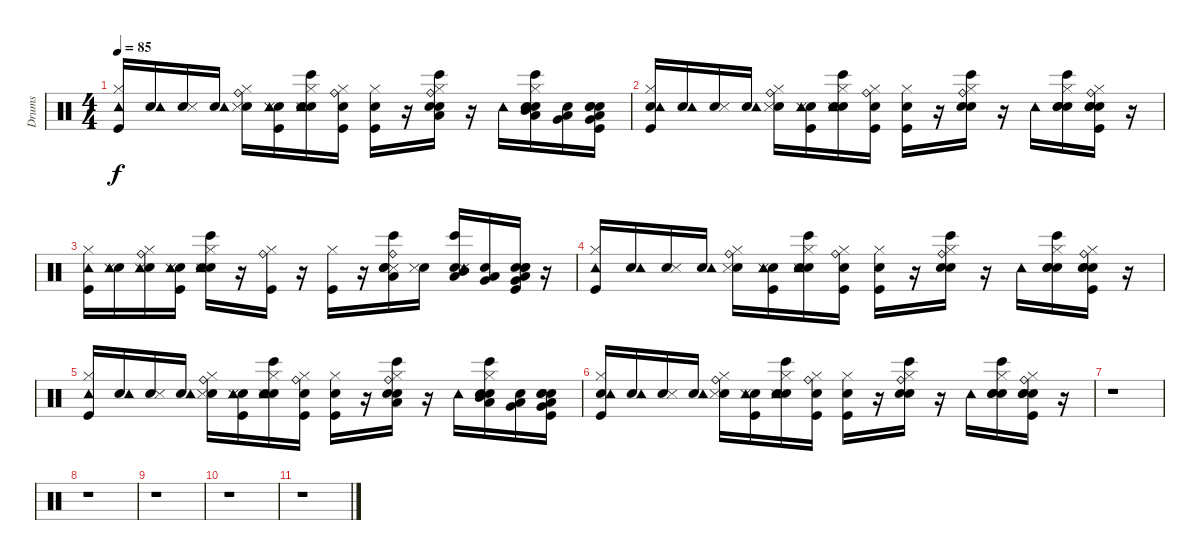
\track ("Drums" "Drums") {instrument percussion}
\staff {score}
\articulation defaults
\ts (4 4)
\tempo 85
\clef neutral
\ks c
("Kick (hit)" "Hi-Hat (closed)" "Tambourine (hit)").16{dy f} ("Snare (hit)" "Tambourine (hit)").16 ("Snare (hit)" "Metronome (hit)").16 ("Snare (hit)" "Tambourine (hit)").16 ("Snare (hit)" "Metronome (hit)" "Hi-Hat (closed)" "Ride (bell)").16 ("Snare (hit)" "Tambourine (hit)" "Metronome (hit)" "Kick (hit)").16 ("Snare (hit)" "Bongo High (hit)" "Metronome (hit)" "Snare (hit) 2" "Hi-Hat (closed)" "Tambourine (hit)").16 ("Snare (hit)" "Kick (hit)" "Hi-Hat (closed)" "Ride (bell)").16 ("Snare (hit)" "Kick (hit)" "Hi-Hat (closed)").16 r.16 ("Low Tom (hit)" "Bongo High (hit)" "Snare (hit) 2" "Hand Clap (hit)" "Hi-Hat (closed)" "Ride (bell)").16 r.16 "Tambourine (hit)".16 ("Snare (hit)" "Low Tom (hit)" "Mid Tom (hit)" "Bongo High (hit)" "Snare (hit) 2" "Hi-Hat (closed)").16 ("Snare (hit)" "Low Tom (hit)" "Very Low Tom (hit)").16 ("Snare (hit)" "Very Low Tom (hit)" "Kick (hit)" "Snare (hit) 2" "Hand Clap (hit)" "Low Floor Tom (hit)").16 |
("Snare (hit)" "Kick (hit)" "Hi-Hat (closed)" "Tambourine (hit)").16 ("Snare (hit)" "Tambourine (hit)").16 ("Snare (hit)" "Metronome (hit)").16 ("Snare (hit)" "Tambourine (hit)").16 ("Snare (hit)" "Metronome (hit)" "Hi-Hat (closed)" "Ride (bell)").16 ("Snare (hit)" "Tambourine (hit)" "Metronome (hit)" "Kick (hit)").16 ("Snare (hit)" "Bongo High (hit)" "Metronome (hit)" "Snare (hit) 2" "Hi-Hat (closed)" "Tambourine (hit)").16 ("Snare (hit)" "Kick (hit)" "Hi-Hat (closed)" "Ride (bell)").16 ("Snare (hit)" "Kick (hit)" "Hi-Hat (closed)").16 r.16 ("Bongo High (hit)" "Snare (hit) 2" "Hand Clap (hit)" "Hi-Hat (closed)" "Ride (bell)").16 r.16 "Tambourine (hit)".16 ("Snare (hit)" "Bongo High (hit)" "Snare (hit) 2" "Hand Clap (hit)" "Hi-Hat (closed)").16 ("Snare (hit)" "Kick (hit)" "Snare (hit) 2" "Hand Clap (hit)" "Hi-Hat (closed)" "Ride (bell)").16 r.16 |
("Kick (hit)" "Hi-Hat (closed)" "Tambourine (hit)").16 ("Snare (hit)" "Metronome (hit)" "Tambourine (hit)").16 ("Snare (hit)" "Metronome (hit)" "Hi-Hat (closed)" "Ride (bell)" "Tambourine (hit)").16 ("Snare (hit)" "Metronome (hit)" "Kick (hit)" "Tambourine (hit)").16 ("Snare (hit)" "Bongo High (hit)" "Metronome (hit)" "Snare (hit) 2" "Hi-Hat (closed)" "Tambourine (hit)").16 r.16 ("Kick (hit)" "Hi-Hat (closed)" "Ride (bell)").16 r.16 ("Kick (hit)" "Hi-Hat (closed)").16 r.16 ("Low Tom (hit)" "Bongo High (hit)" "Metronome (hit)" "Snare (hit) 2" "Hand Clap (hit)" "Ride (bell)").16 ("Snare (hit)" "Metronome (hit)").16 ("Snare (hit)" "Low Tom (hit)" "Mid Tom (hit)" "Bongo High (hit)" "Metronome (hit)" "Tambourine (hit)").16 ("Snare (hit)" "Low Tom (hit)" "Very Low Tom (hit)").16 ("Snare (hit)" "Very Low Tom (hit)" "Kick (hit)" "Snare (hit) 2" "Hand Clap (hit)" "Low Floor Tom (hit)").16 r.16 |
("Kick (hit)" "Hi-Hat (closed)" "Tambourine (hit)").16 ("Snare (hit)" "Tambourine (hit)").16 ("Snare (hit)" "Metronome (hit)").16 ("Snare (hit)" "Tambourine (hit)").16 ("Snare (hit)" "Metronome (hit)" "Hi-Hat (closed)" "Ride (bell)").16 ("Snare (hit)" "Tambourine (hit)" "Metronome (hit)" "Kick (hit)").16 ("Snare (hit)" "Bongo High (hit)" "Metronome (hit)" "Snare (hit) 2" "Hi-Hat (closed)" "Tambourine (hit)").16 ("Snare (hit)" "Kick (hit)" "Hi-Hat (closed)" "Ride (bell)").16 ("Snare (hit)" "Kick (hit)" "Hi-Hat (closed)").16 r.16 ("Bongo High (hit)" "Snare (hit) 2" "Hand Clap (hit)" "Hi-Hat (closed)" "Ride (bell)").16 r.16 "Tambourine (hit)".16 ("Snare (hit)" "Bongo High (hit)" "Snare (hit) 2" "Hand Clap (hit)" "Hi-Hat (closed)").16 ("Snare (hit)" "Kick (hit)" "Snare (hit) 2" "Hand Clap (hit)" "Hi-Hat (closed)" "Ride (bell)").16 r.16 |
("Kick (hit)" "Hi-Hat (closed)" "Tambourine (hit)").16 ("Snare (hit)" "Tambourine (hit)").16 ("Snare (hit)" "Metronome (hit)").16 ("Snare (hit)" "Tambourine (hit)").16 ("Snare (hit)" "Metronome (hit)" "Hi-Hat (closed)" "Ride (bell)").16 ("Snare (hit)" "Tambourine (hit)" "Metronome (hit)" "Kick (hit)").16 ("Snare (hit)" "Bongo High (hit)" "Metronome (hit)" "Snare (hit) 2" "Hi-Hat (closed)" "Tambourine (hit)").16 ("Snare (hit)" "Kick (hit)" "Hi-Hat (closed)" "Ride (bell)").16 ("Snare (hit)" "Kick (hit)" "Hi-Hat (closed)").16 r.16 ("Low Tom (hit)" "Bongo High (hit)" "Snare (hit) 2" "Hand Clap (hit)" "Hi-Hat (closed)" "Ride (bell)").16 r.16 "Tambourine (hit)".16 ("Snare (hit)" "Low Tom (hit)" "Mid Tom (hit)" "Bongo High (hit)" "Snare (hit) 2" "Hi-Hat (closed)").16 ("Snare (hit)" "Low Tom (hit)" "Very Low Tom (hit)").16 ("Snare (hit)" "Very Low Tom (hit)" "Kick (hit)" "Snare (hit) 2" "Hand Clap (hit)" "Low Floor Tom (hit)").16 |
("Snare (hit)" "Kick (hit)" "Hi-Hat (closed)" "Tambourine (hit)").16 ("Snare (hit)" "Tambourine (hit)").16 ("Snare (hit)" "Metronome (hit)").16 ("Snare (hit)" "Tambourine (hit)").16 ("Snare (hit)" "Metronome (hit)" "Hi-Hat (closed)" "Ride (bell)").16 ("Snare (hit)" "Tambourine (hit)" "Metronome (hit)" "Kick (hit)").16 ("Snare (hit)" "Bongo High (hit)" "Metronome (hit)" "Snare (hit) 2" "Hi-Hat (closed)" "Tambourine (hit)").16 ("Snare (hit)" "Kick (hit)" "Hi-Hat (closed)" "Ride (bell)").16 ("Snare (hit)" "Kick (hit)" "Hi-Hat (closed)").16 r.16 ("Bongo High (hit)" "Snare (hit) 2" "Hand Clap (hit)" "Hi-Hat (closed)" "Ride (bell)").16 r.16 "Tambourine (hit)".16 ("Snare (hit)" "Bongo High (hit)" "Snare (hit) 2" "Hand Clap (hit)" "Hi-Hat (closed)").16 ("Snare (hit)" "Kick (hit)" "Snare (hit) 2" "Hand Clap (hit)" "Hi-Hat (closed)" "Ride (bell)").16 r.16 |
r.1 |
r.1 |
r.1 |
r.1 |
r.1
